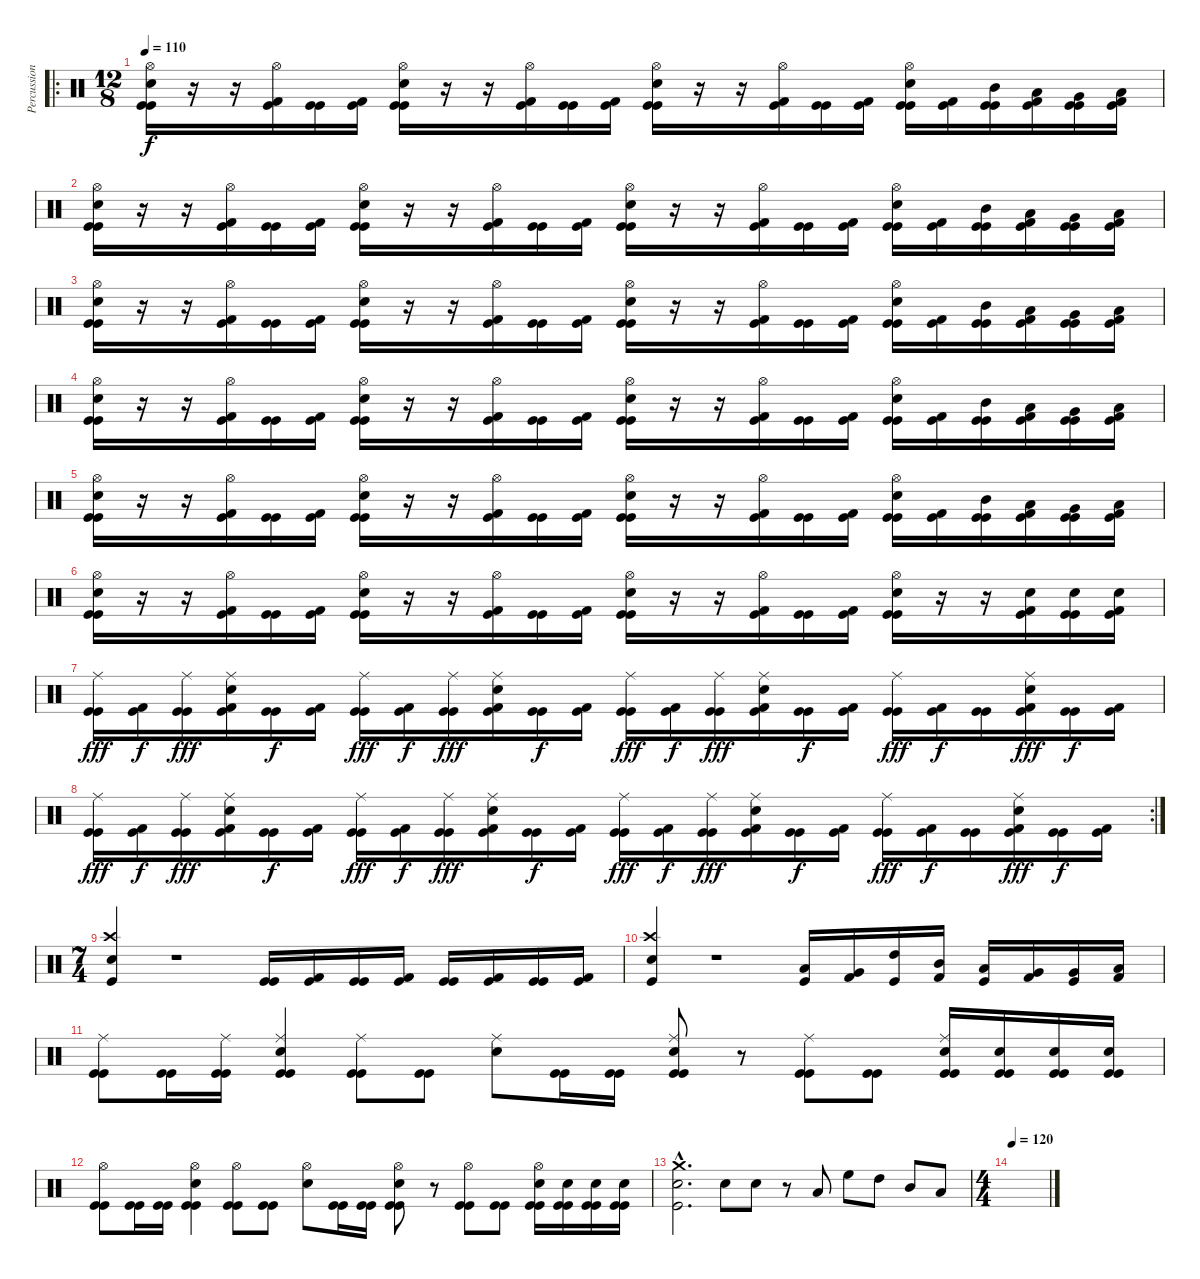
\track ("Percussion" "Percussion") {instrument percussion}
\staff {score}
\articulation defaults
\ro
\ts (12 8)
\tempo 110
\clef neutral
\ks c
("Hi-Hat (open)" "Electric Snare (hit)" "Kick (hit)" "Kick (hit)").16{dy f} r.16 r.16 ("Hi-Hat (open)" "Kick (hit)" "Kick (hit) 2").16 ("Kick (hit)" "Kick (hit)").16 ("Kick (hit)" "Kick (hit) 2").16 ("Hi-Hat (open)" "Electric Snare (hit)" "Kick (hit)" "Kick (hit)").16 r.16 r.16 ("Hi-Hat (open)" "Kick (hit)" "Kick (hit) 2").16 ("Kick (hit)" "Kick (hit)").16 ("Kick (hit)" "Kick (hit) 2").16 ("Hi-Hat (open)" "Electric Snare (hit)" "Kick (hit)" "Kick (hit)").16 r.16 r.16 ("Hi-Hat (open)" "Kick (hit)" "Kick (hit) 2").16 ("Kick (hit)" "Kick (hit)").16 ("Kick (hit)" "Kick (hit) 2").16 ("Hi-Hat (open)" "Electric Snare (hit)" "Kick (hit)" "Kick (hit)").16 ("Kick (hit)" "Kick (hit) 2").16 ("Mid Tom (hit)" "Kick (hit)" "Kick (hit)").16 ("Low Tom (hit)" "Kick (hit)" "Kick (hit) 2").16 ("Very Low Tom (hit)" "Kick (hit)" "Kick (hit)").16 ("Low Floor Tom (hit)" "Kick (hit)" "Kick (hit) 2").16 |
("Hi-Hat (open)" "Electric Snare (hit)" "Kick (hit)" "Kick (hit)").16 r.16 r.16 ("Hi-Hat (open)" "Kick (hit)" "Kick (hit) 2").16 ("Kick (hit)" "Kick (hit)").16 ("Kick (hit)" "Kick (hit) 2").16 ("Hi-Hat (open)" "Electric Snare (hit)" "Kick (hit)" "Kick (hit)").16 r.16 r.16 ("Hi-Hat (open)" "Kick (hit)" "Kick (hit) 2").16 ("Kick (hit)" "Kick (hit)").16 ("Kick (hit)" "Kick (hit) 2").16 ("Hi-Hat (open)" "Electric Snare (hit)" "Kick (hit)" "Kick (hit)").16 r.16 r.16 ("Hi-Hat (open)" "Kick (hit)" "Kick (hit) 2").16 ("Kick (hit)" "Kick (hit)").16 ("Kick (hit)" "Kick (hit) 2").16 ("Hi-Hat (open)" "Electric Snare (hit)" "Kick (hit)" "Kick (hit)").16 ("Kick (hit)" "Kick (hit) 2").16 ("Mid Tom (hit)" "Kick (hit)" "Kick (hit)").16 ("Low Tom (hit)" "Kick (hit)" "Kick (hit) 2").16 ("Very Low Tom (hit)" "Kick (hit)" "Kick (hit)").16 ("Low Floor Tom (hit)" "Kick (hit)" "Kick (hit) 2").16 |
("Hi-Hat (open)" "Electric Snare (hit)" "Kick (hit)" "Kick (hit)").16 r.16 r.16 ("Hi-Hat (open)" "Kick (hit)" "Kick (hit) 2").16 ("Kick (hit)" "Kick (hit)").16 ("Kick (hit)" "Kick (hit) 2").16 ("Hi-Hat (open)" "Electric Snare (hit)" "Kick (hit)" "Kick (hit)").16 r.16 r.16 ("Hi-Hat (open)" "Kick (hit)" "Kick (hit) 2").16 ("Kick (hit)" "Kick (hit)").16 ("Kick (hit)" "Kick (hit) 2").16 ("Hi-Hat (open)" "Electric Snare (hit)" "Kick (hit)" "Kick (hit)").16 r.16 r.16 ("Hi-Hat (open)" "Kick (hit)" "Kick (hit) 2").16 ("Kick (hit)" "Kick (hit)").16 ("Kick (hit)" "Kick (hit) 2").16 ("Hi-Hat (open)" "Electric Snare (hit)" "Kick (hit)" "Kick (hit)").16 ("Kick (hit)" "Kick (hit) 2").16 ("Mid Tom (hit)" "Kick (hit)" "Kick (hit)").16 ("Low Tom (hit)" "Kick (hit)" "Kick (hit) 2").16 ("Very Low Tom (hit)" "Kick (hit)" "Kick (hit)").16 ("Low Floor Tom (hit)" "Kick (hit)" "Kick (hit) 2").16 |
("Hi-Hat (open)" "Electric Snare (hit)" "Kick (hit)" "Kick (hit)").16 r.16 r.16 ("Hi-Hat (open)" "Kick (hit)" "Kick (hit) 2").16 ("Kick (hit)" "Kick (hit)").16 ("Kick (hit)" "Kick (hit) 2").16 ("Hi-Hat (open)" "Electric Snare (hit)" "Kick (hit)" "Kick (hit)").16 r.16 r.16 ("Hi-Hat (open)" "Kick (hit)" "Kick (hit) 2").16 ("Kick (hit)" "Kick (hit)").16 ("Kick (hit)" "Kick (hit) 2").16 ("Hi-Hat (open)" "Electric Snare (hit)" "Kick (hit)" "Kick (hit)").16 r.16 r.16 ("Hi-Hat (open)" "Kick (hit)" "Kick (hit) 2").16 ("Kick (hit)" "Kick (hit)").16 ("Kick (hit)" "Kick (hit) 2").16 ("Hi-Hat (open)" "Electric Snare (hit)" "Kick (hit)" "Kick (hit)").16 ("Kick (hit)" "Kick (hit) 2").16 ("Mid Tom (hit)" "Kick (hit)" "Kick (hit)").16 ("Low Tom (hit)" "Kick (hit)" "Kick (hit) 2").16 ("Very Low Tom (hit)" "Kick (hit)" "Kick (hit)").16 ("Low Floor Tom (hit)" "Kick (hit)" "Kick (hit) 2").16 |
("Hi-Hat (open)" "Electric Snare (hit)" "Kick (hit)" "Kick (hit)").16 r.16 r.16 ("Hi-Hat (open)" "Kick (hit)" "Kick (hit) 2").16 ("Kick (hit)" "Kick (hit)").16 ("Kick (hit)" "Kick (hit) 2").16 ("Hi-Hat (open)" "Electric Snare (hit)" "Kick (hit)" "Kick (hit)").16 r.16 r.16 ("Hi-Hat (open)" "Kick (hit)" "Kick (hit) 2").16 ("Kick (hit)" "Kick (hit)").16 ("Kick (hit)" "Kick (hit) 2").16 ("Hi-Hat (open)" "Electric Snare (hit)" "Kick (hit)" "Kick (hit)").16 r.16 r.16 ("Hi-Hat (open)" "Kick (hit)" "Kick (hit) 2").16 ("Kick (hit)" "Kick (hit)").16 ("Kick (hit)" "Kick (hit) 2").16 ("Hi-Hat (open)" "Electric Snare (hit)" "Kick (hit)" "Kick (hit)").16 ("Kick (hit)" "Kick (hit) 2").16 ("Mid Tom (hit)" "Kick (hit)" "Kick (hit)").16 ("Low Tom (hit)" "Kick (hit)" "Kick (hit) 2").16 ("Very Low Tom (hit)" "Kick (hit)" "Kick (hit)").16 ("Low Floor Tom (hit)" "Kick (hit)" "Kick (hit) 2").16 |
("Hi-Hat (open)" "Electric Snare (hit)" "Kick (hit)" "Kick (hit)").16 r.16 r.16 ("Hi-Hat (open)" "Kick (hit)" "Kick (hit) 2").16 ("Kick (hit)" "Kick (hit)").16 ("Kick (hit)" "Kick (hit) 2").16 ("Hi-Hat (open)" "Electric Snare (hit)" "Kick (hit)" "Kick (hit)").16 r.16 r.16 ("Hi-Hat (open)" "Kick (hit)" "Kick (hit) 2").16 ("Kick (hit)" "Kick (hit)").16 ("Kick (hit)" "Kick (hit) 2").16 ("Hi-Hat (open)" "Electric Snare (hit)" "Kick (hit)" "Kick (hit)").16 r.16 r.16 ("Hi-Hat (open)" "Kick (hit)" "Kick (hit) 2").16 ("Kick (hit)" "Kick (hit)").16 ("Kick (hit)" "Kick (hit) 2").16 ("Hi-Hat (open)" "Electric Snare (hit)" "Kick (hit)" "Kick (hit)").16 r.16 r.16 ("Electric Snare (hit)" "Kick (hit)" "Kick (hit) 2").16 ("Electric Snare (hit)" "Kick (hit)" "Kick (hit)").16 ("Electric Snare (hit)" "Kick (hit)" "Kick (hit) 2").16 |
("Ride (middle)" "Kick (hit)" "Kick (hit)").16{dy fff} ("Kick (hit)" "Kick (hit) 2").16{dy f} ("Ride (middle)" "Kick (hit)" "Kick (hit)").16{dy fff} ("Ride (middle)" "Electric Snare (hit)" "Kick (hit)" "Kick (hit) 2").16 ("Kick (hit)" "Kick (hit)").16{dy f} ("Kick (hit)" "Kick (hit) 2").16 ("Ride (middle)" "Kick (hit)" "Kick (hit)").16{dy fff} ("Kick (hit)" "Kick (hit) 2").16{dy f} ("Ride (middle)" "Kick (hit)" "Kick (hit)").16{dy fff} ("Ride (middle)" "Electric Snare (hit)" "Kick (hit)" "Kick (hit) 2").16 ("Kick (hit)" "Kick (hit)").16{dy f} ("Kick (hit)" "Kick (hit) 2").16 ("Ride (middle)" "Kick (hit)" "Kick (hit)").16{dy fff} ("Kick (hit)" "Kick (hit) 2").16{dy f} ("Ride (middle)" "Kick (hit)" "Kick (hit)").16{dy fff} ("Ride (middle)" "Electric Snare (hit)" "Kick (hit)" "Kick (hit) 2").16 ("Kick (hit)" "Kick (hit)").16{dy f} ("Kick (hit)" "Kick (hit) 2").16 ("Ride (middle)" "Kick (hit)" "Kick (hit)").16{dy fff} ("Kick (hit)" "Kick (hit) 2").16{dy f} ("Kick (hit)" "Kick (hit)").16 ("Ride (middle)" "Electric Snare (hit)" "Kick (hit)" "Kick (hit) 2").16{dy fff} ("Kick (hit)" "Kick (hit)").16{dy f} ("Kick (hit)" "Kick (hit) 2").16 |
\rc 2
("Ride (middle)" "Kick (hit)" "Kick (hit)").16{dy fff} ("Kick (hit)" "Kick (hit) 2").16{dy f} ("Ride (middle)" "Kick (hit)" "Kick (hit)").16{dy fff} ("Ride (middle)" "Electric Snare (hit)" "Kick (hit)" "Kick (hit) 2").16 ("Kick (hit)" "Kick (hit)").16{dy f} ("Kick (hit)" "Kick (hit) 2").16 ("Ride (middle)" "Kick (hit)" "Kick (hit)").16{dy fff} ("Kick (hit)" "Kick (hit) 2").16{dy f} ("Ride (middle)" "Kick (hit)" "Kick (hit)").16{dy fff} ("Ride (middle)" "Electric Snare (hit)" "Kick (hit)" "Kick (hit) 2").16 ("Kick (hit)" "Kick (hit)").16{dy f} ("Kick (hit)" "Kick (hit) 2").16 ("Ride (middle)" "Kick (hit)" "Kick (hit)").16{dy fff} ("Kick (hit)" "Kick (hit) 2").16{dy f} ("Ride (middle)" "Kick (hit)" "Kick (hit)").16{dy fff} ("Ride (middle)" "Electric Snare (hit)" "Kick (hit)" "Kick (hit) 2").16 ("Kick (hit)" "Kick (hit)").16{dy f} ("Kick (hit)" "Kick (hit) 2").16 ("Ride (middle)" "Kick (hit)" "Kick (hit)").16{dy fff} ("Kick (hit)" "Kick (hit) 2").16{dy f} ("Kick (hit)" "Kick (hit)").16 ("Ride (middle)" "Electric Snare (hit)" "Kick (hit)" "Kick (hit) 2").16{dy fff} ("Kick (hit)" "Kick (hit)").16{dy f} ("Kick (hit)" "Kick (hit) 2").16 |
\ts (7 4)
("Crash high (hit)" "Snare (hit) 2" "Kick (hit)").4 r.1 ("Kick (hit)" "Kick (hit)").16 ("Kick (hit)" "Kick (hit) 2").16 ("Kick (hit)" "Kick (hit)").16 ("Kick (hit)" "Kick (hit) 2").16 ("Kick (hit)" "Kick (hit)").16 ("Kick (hit)" "Kick (hit) 2").16 ("Kick (hit)" "Kick (hit)").16 ("Kick (hit)" "Kick (hit) 2").16 |
("Crash high (hit)" "Snare (hit) 2" "Kick (hit)").4 r.1 ("Low Floor Tom (hit)" "Kick (hit)").16 ("Very Low Tom (hit)" "Kick (hit) 2").16 ("High Tom (hit)" "Kick (hit)").16 ("Mid Tom (hit)" "Kick (hit) 2").16 ("Low Tom (hit)" "Kick (hit)").16 ("Very Low Tom (hit)" "Kick (hit) 2").16 ("Very Low Tom (hit)" "Kick (hit)").16 ("Low Floor Tom (hit)" "Kick (hit) 2").16 |
("Ride (middle)" "Kick (hit)" "Kick (hit)").8 ("Kick (hit)" "Kick (hit)").16 ("Ride (middle)" "Kick (hit)" "Kick (hit)").16 ("Ride (middle)" "Snare (hit) 2" "Kick (hit)" "Kick (hit)").4 ("Ride (middle)" "Kick (hit)" "Kick (hit)").8 ("Kick (hit)" "Kick (hit)").8 ("Ride (middle)" "Snare (hit) 2").8 ("Kick (hit)" "Kick (hit)").16 ("Kick (hit)" "Kick (hit)").16 ("Ride (middle)" "Snare (hit) 2" "Kick (hit)" "Kick (hit)").8 r.8 ("Ride (middle)" "Kick (hit)" "Kick (hit)").8 ("Kick (hit)" "Kick (hit)").8 ("Ride (middle)" "Snare (hit) 2" "Kick (hit)" "Kick (hit)").16 ("Snare (hit) 2" "Kick (hit)" "Kick (hit)").16 ("Snare (hit) 2" "Kick (hit)" "Kick (hit)").16 ("Snare (hit) 2" "Kick (hit)" "Kick (hit)").16 |
("Hi-Hat (open)" "Kick (hit)" "Kick (hit)").8 ("Kick (hit)" "Kick (hit)").16 ("Kick (hit)" "Kick (hit)").16 ("Hi-Hat (open)" "Snare (hit) 2" "Kick (hit)" "Kick (hit)").4 ("Hi-Hat (open)" "Kick (hit)" "Kick (hit)").8 ("Kick (hit)" "Kick (hit)").8 ("Hi-Hat (open)" "Snare (hit) 2").8 ("Kick (hit)" "Kick (hit)").16 ("Kick (hit)" "Kick (hit)").16 ("Hi-Hat (open)" "Snare (hit) 2" "Kick (hit)" "Kick (hit)").8 r.8 ("Hi-Hat (open)" "Kick (hit)" "Kick (hit)").8 ("Kick (hit)" "Kick (hit)").8 ("Hi-Hat (open)" "Snare (hit) 2" "Kick (hit)" "Kick (hit)").16 ("Snare (hit) 2" "Kick (hit)" "Kick (hit)").16 ("Snare (hit) 2" "Kick (hit)" "Kick (hit)").16 ("Snare (hit) 2" "Kick (hit)" "Kick (hit)").16 |
("Crash medium (hit)"{hac} "Snare (hit) 2"{hac} "Kick (hit)"{hac}).2{d} "Snare (hit) 2".8 "Snare (hit) 2".8 r.8 "Low Tom (hit)".8 "High Floor Tom (hit)".8 "High Tom (hit)".8 "Mid Tom (hit)".8 "Low Floor Tom (hit)".8 |
\ts (4 4)
\tempo 120
